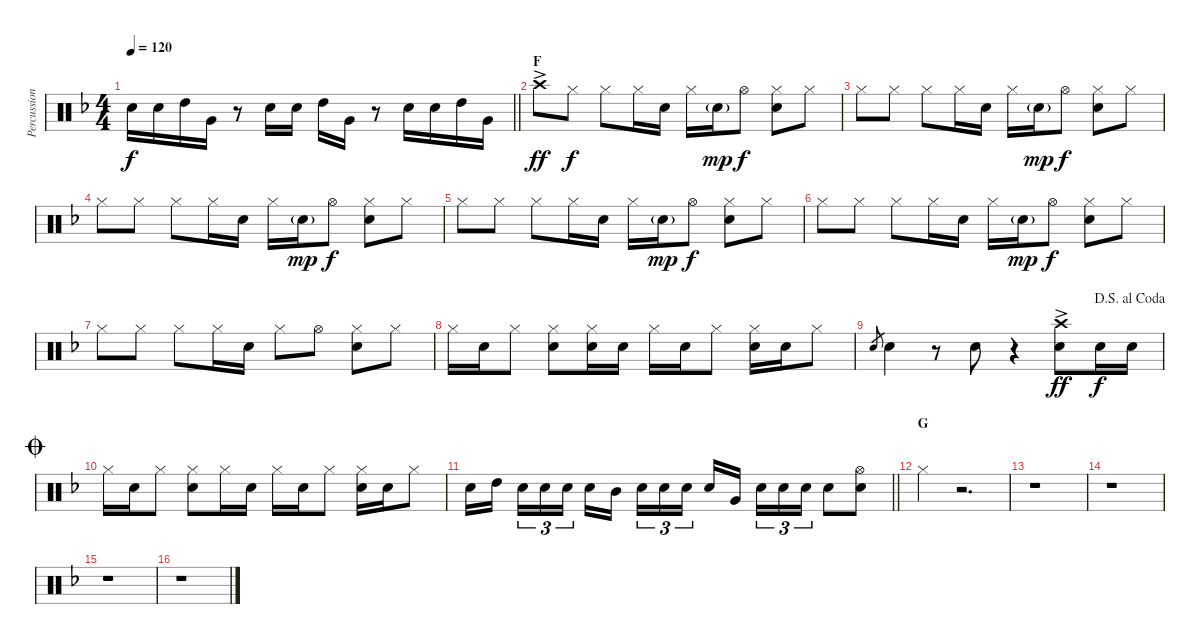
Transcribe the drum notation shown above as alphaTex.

\track ("Percussion hand" "Percussion") {instrument percussion}
\staff {score}
\articulation defaults
\ts (4 4)
\tempo 120
\clef neutral
\barLineRight lightlight
\ks f "Snare (hit) 2".16{dy f} "Snare (hit) 2".16 "High Tom (hit)".16 "Very Low Tom (hit)".16
r.8 "Snare (hit) 2".16 "Snare (hit) 2".16 "High Tom (hit)".16 "Very Low Tom (hit)".16 r.8 "Snare (hit) 2".16 "Snare (hit) 2".16 "High Tom (hit)".16 "Very Low Tom (hit)".16 |
\section ("" "F")
"Crash high (hit)"{ac}.8{dy ff} "Hi-Hat (closed)".8{dy f} "Hi-Hat (closed)".8 "Hi-Hat (closed)".16 "Snare (hit) 2".16 "Hi-Hat (closed)".16 "Snare (hit) 2"{g}.16{dy mp} "Hi-Hat (open)".8{dy f} ("Hi-Hat (closed)" "Snare (hit) 2").8 "Hi-Hat (closed)".8 |
"Hi-Hat (closed)".8 "Hi-Hat (closed)".8 "Hi-Hat (closed)".8 "Hi-Hat (closed)".16 "Snare (hit) 2".16 "Hi-Hat (closed)".16 "Snare (hit) 2"{g}.16{dy mp} "Hi-Hat (open)".8{dy f} ("Hi-Hat (closed)" "Snare (hit) 2").8 "Hi-Hat (closed)".8 |
"Hi-Hat (closed)".8 "Hi-Hat (closed)".8 "Hi-Hat (closed)".8 "Hi-Hat (closed)".16 "Snare (hit) 2".16 "Hi-Hat (closed)".16 "Snare (hit) 2"{g}.16{dy mp} "Hi-Hat (open)".8{dy f} ("Hi-Hat (closed)" "Snare (hit) 2").8 "Hi-Hat (closed)".8 |
"Hi-Hat (closed)".8 "Hi-Hat (closed)".8 "Hi-Hat (closed)".8 "Hi-Hat (closed)".16 "Snare (hit) 2".16 "Hi-Hat (closed)".16 "Snare (hit) 2"{g}.16{dy mp} "Hi-Hat (open)".8{dy f} ("Hi-Hat (closed)" "Snare (hit) 2").8 "Hi-Hat (closed)".8 |
"Hi-Hat (closed)".8 "Hi-Hat (closed)".8 "Hi-Hat (closed)".8 "Hi-Hat (closed)".16 "Snare (hit) 2".16 "Hi-Hat (closed)".16 "Snare (hit) 2"{g}.16{dy mp} "Hi-Hat (open)".8{dy f} ("Hi-Hat (closed)" "Snare (hit) 2").8 "Hi-Hat (closed)".8 |
"Hi-Hat (closed)".8 "Hi-Hat (closed)".8 "Hi-Hat (closed)".8 "Hi-Hat (closed)".16 "Snare (hit) 2".16 "Hi-Hat (closed)".8 "Hi-Hat (open)".8 ("Hi-Hat (closed)" "Snare (hit) 2").8 "Hi-Hat (closed)".8 |
"Hi-Hat (closed)".16 "Snare (hit) 2".16 "Hi-Hat (closed)".8 ("Hi-Hat (closed)" "Snare (hit) 2").8 ("Hi-Hat (closed)" "Snare (hit) 2").16 "Snare (hit) 2".16 "Hi-Hat (closed)".16 "Snare (hit) 2".16 "Hi-Hat (closed)".8 ("Hi-Hat (closed)" "Snare (hit) 2").16 "Snare (hit) 2".16 "Hi-Hat (closed)".8 |
\jump dalsegnoalcoda "Snare (hit) 2".8{gr} "Snare (hit) 2".4
r.8 "Snare (hit) 2".8 r.4 ("Crash high (hit)" "Snare (hit) 2"{ac}).8{dy ff} "Snare (hit) 2".16{dy f} "Snare (hit) 2".16 |
\jump coda "Hi-Hat (closed)".16 "Snare (hit) 2".16 "Hi-Hat (closed)".8
("Hi-Hat (closed)" "Snare (hit) 2").8 "Hi-Hat (closed)".16 "Snare (hit) 2".16 "Hi-Hat (closed)".16 "Snare (hit) 2".16 "Hi-Hat (closed)".8 ("Hi-Hat (closed)" "Snare (hit) 2").16 "Snare (hit) 2".16 "Hi-Hat (closed)".8 |
\barLineRight lightlight "Snare (hit) 2".16 "High Tom (hit)".16{beam splitsecondary} "Snare (hit) 2".16{tu (3 2)} "Snare (hit) 2".16{tu (3 2)} "Snare (hit) 2".16{tu (3 2)} "Snare (hit) 2".16 "Mid Tom (hit)".16{beam splitsecondary} "Snare (hit) 2".16{tu (3 2)} "Snare (hit) 2".16{tu (3 2)} "Snare (hit) 2".16{tu (3 2)} "Snare (hit) 2".16 "Very Low Tom (hit)".16{beam splitsecondary} "Snare (hit) 2".16{tu (3 2)} "Snare (hit) 2".16{tu (3 2)} "Snare (hit) 2".16{tu (3 2)} "Snare (hit) 2".8
("Snare (hit) 2" "Hi-Hat (open)").8 |
\section ("" "G")
"Hi-Hat (closed)".4 r.2{d} |
r.1 |
r.1 |
r.1 |
r.1
